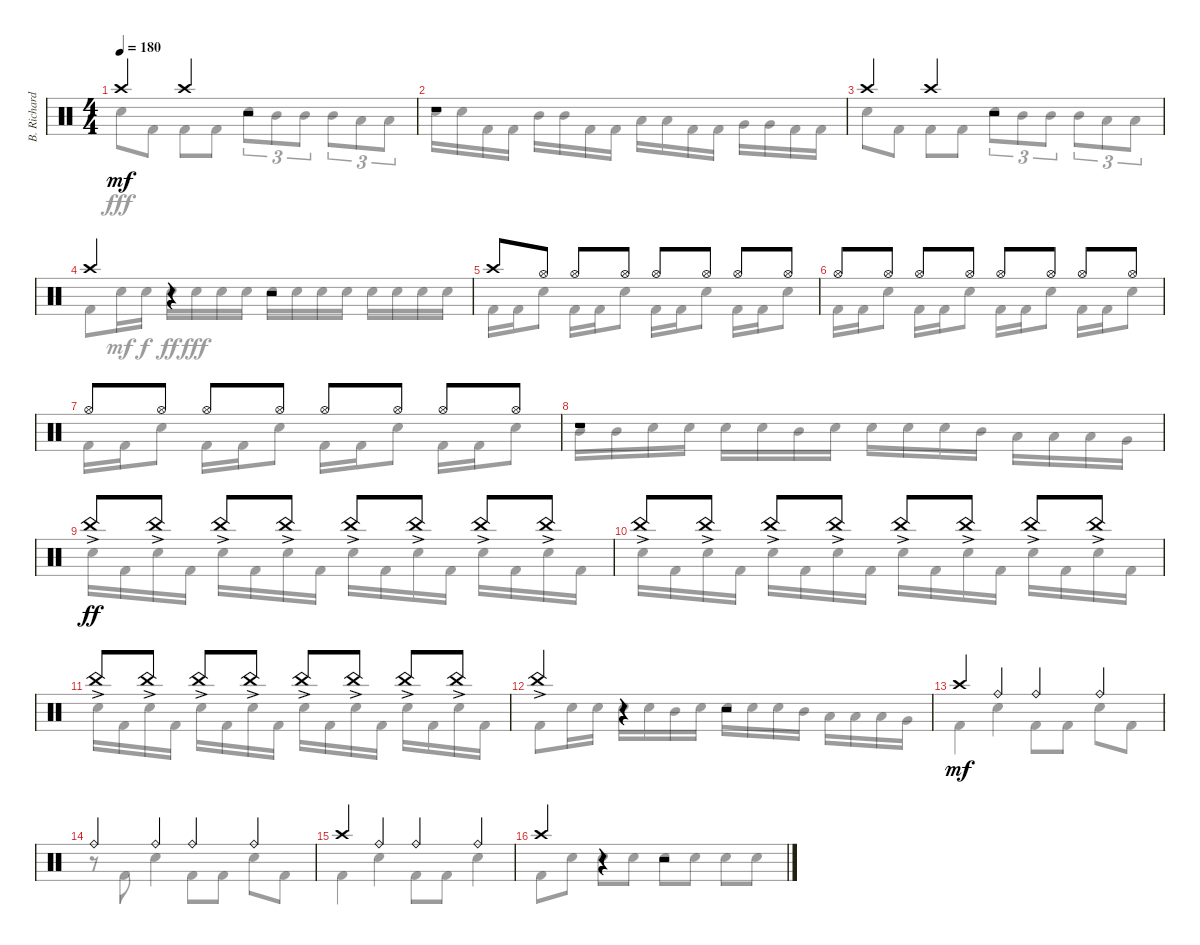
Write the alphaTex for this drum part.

\track ("B. Richardson Drums" "B. Richard") {instrument percussion}
\staff {score}
\articulation defaults
\voice
\ts (4 4)
\tempo 180
\clef neutral
\ks c "Crash high (hit)".4{dy mf} "Crash high (hit)".4
r.2 |
r.1 |
"Crash high (hit)".4 "Crash high (hit)".4 r.2 |
"Crash high (hit)".4 r.4 r.2 |
"Crash high (hit)".8 "Hi-Hat (open)".8 "Hi-Hat (open)".8 "Hi-Hat (open)".8 "Hi-Hat (open)".8 "Hi-Hat (open)".8 "Hi-Hat (open)".8 "Hi-Hat (open)".8 |
"Hi-Hat (open)".8 "Hi-Hat (open)".8 "Hi-Hat (open)".8 "Hi-Hat (open)".8 "Hi-Hat (open)".8 "Hi-Hat (open)".8 "Hi-Hat (open)".8 "Hi-Hat (open)".8 |
"Hi-Hat (open)".8 "Hi-Hat (open)".8 "Hi-Hat (open)".8 "Hi-Hat (open)".8 "Hi-Hat (open)".8 "Hi-Hat (open)".8 "Hi-Hat (open)".8 "Hi-Hat (open)".8 |
r.1 |
"China (hit)"{ac}.8{dy ff} "China (hit)"{ac}.8 "China (hit)"{ac}.8 "China (hit)"{ac}.8 "China (hit)"{ac}.8 "China (hit)"{ac}.8 "China (hit)"{ac}.8 "China (hit)"{ac}.8 |
"China (hit)"{ac}.8 "China (hit)"{ac}.8 "China (hit)"{ac}.8 "China (hit)"{ac}.8 "China (hit)"{ac}.8 "China (hit)"{ac}.8 "China (hit)"{ac}.8 "China (hit)"{ac}.8 |
"China (hit)"{ac}.8 "China (hit)"{ac}.8 "China (hit)"{ac}.8 "China (hit)"{ac}.8 "China (hit)"{ac}.8 "China (hit)"{ac}.8 "China (hit)"{ac}.8 "China (hit)"{ac}.8 |
"China (hit)"{ac}.4 r.4 r.2 |
"Crash high (hit)".4{dy mf} "Ride (bell)".4 "Ride (bell)".4 "Ride (bell)".4 |
"Ride (bell)".4 "Ride (bell)".4 "Ride (bell)".4 "Ride (bell)".4 |
"Crash high (hit)".4 "Ride (bell)".4 "Ride (bell)".4 "Ride (bell)".4 |
"Crash high (hit)".4 r.4 r.2
\voice
\clef neutral
\ottava regular
\simile none
\ks c "Electric Snare (hit)".8{dy fff} "Kick (hit) 2".8 "Kick (hit) 2".8 "Kick (hit) 2".8 "Electric Snare (hit)".8{tu (3 2)} "Mid Tom (hit)".8{tu (3 2)} "Mid Tom (hit)".8{tu (3 2)} "Mid Tom (hit)".8{tu (3 2)} "Low Tom (hit)".8{tu (3 2)} "Low Tom (hit)".8{tu (3 2)}
|
"Electric Snare (hit)".16 "Electric Snare (hit)".16 "Kick (hit) 2".16 "Kick (hit) 2".16 "Mid Tom (hit)".16 "Mid Tom (hit)".16 "Kick (hit) 2".16 "Kick (hit) 2".16 "Low Tom (hit)".16 "Low Tom (hit)".16 "Kick (hit) 2".16 "Kick (hit) 2".16 "Very Low Tom (hit)".16 "Very Low Tom (hit)".16 "Kick (hit) 2".16 "Kick (hit) 2".16 |
"Electric Snare (hit)".8 "Kick (hit) 2".8 "Kick (hit) 2".8 "Kick (hit) 2".8 "Electric Snare (hit)".8{tu (3 2)} "Mid Tom (hit)".8{tu (3 2)} "Mid Tom (hit)".8{tu (3 2)} "Mid Tom (hit)".8{tu (3 2)} "Low Tom (hit)".8{tu (3 2)} "Low Tom (hit)".8{tu (3 2)} |
"Kick (hit) 2".8 "Electric Snare (hit)".16{dy mf} "Electric Snare (hit)".16{dy f} "Electric Snare (hit)".16{dy ff} "Electric Snare (hit)".16{dy fff} "Electric Snare (hit)".16 "Electric Snare (hit)".16 "Electric Snare (hit)".16 "Electric Snare (hit)".16 "Electric Snare (hit)".16 "Electric Snare (hit)".16 "Electric Snare (hit)".16 "Electric Snare (hit)".16 "Electric Snare (hit)".16 "Electric Snare (hit)".16 |
"Kick (hit) 2".16 "Kick (hit) 2".16 "Electric Snare (hit)".8 "Kick (hit) 2".16 "Kick (hit) 2".16 "Electric Snare (hit)".8 "Kick (hit) 2".16 "Kick (hit) 2".16 "Electric Snare (hit)".8 "Kick (hit) 2".16 "Kick (hit) 2".16 "Electric Snare (hit)".8 |
"Kick (hit) 2".16 "Kick (hit) 2".16 "Electric Snare (hit)".8 "Kick (hit) 2".16 "Kick (hit) 2".16 "Electric Snare (hit)".8 "Kick (hit) 2".16 "Kick (hit) 2".16 "Electric Snare (hit)".8 "Kick (hit) 2".16 "Kick (hit) 2".16 "Electric Snare (hit)".8 |
"Kick (hit) 2".16 "Kick (hit) 2".16 "Electric Snare (hit)".8 "Kick (hit) 2".16 "Kick (hit) 2".16 "Electric Snare (hit)".8 "Kick (hit) 2".16 "Kick (hit) 2".16 "Electric Snare (hit)".8 "Kick (hit) 2".16 "Kick (hit) 2".16 "Electric Snare (hit)".8 |
"Mid Tom (hit)".16 "Mid Tom (hit)".16 "Electric Snare (hit)".16 "Electric Snare (hit)".16 "Electric Snare (hit)".16 "Electric Snare (hit)".16 "Mid Tom (hit)".16 "Electric Snare (hit)".16 "Electric Snare (hit)".16 "Electric Snare (hit)".16 "Electric Snare (hit)".16 "Mid Tom (hit)".16 "Low Tom (hit)".16 "Low Tom (hit)".16 "Low Tom (hit)".16 "Very Low Tom (hit)".16 |
"Electric Snare (hit)".16 "Kick (hit) 2".16 "Electric Snare (hit)".16 "Kick (hit) 2".16 "Electric Snare (hit)".16 "Kick (hit) 2".16 "Electric Snare (hit)".16 "Kick (hit) 2".16 "Electric Snare (hit)".16 "Kick (hit) 2".16 "Electric Snare (hit)".16 "Kick (hit) 2".16 "Electric Snare (hit)".16 "Kick (hit) 2".16 "Electric Snare (hit)".16 "Kick (hit) 2".16 |
"Electric Snare (hit)".16 "Kick (hit) 2".16 "Electric Snare (hit)".16 "Kick (hit) 2".16 "Electric Snare (hit)".16 "Kick (hit) 2".16 "Electric Snare (hit)".16 "Kick (hit) 2".16 "Electric Snare (hit)".16 "Kick (hit) 2".16 "Electric Snare (hit)".16 "Kick (hit) 2".16 "Electric Snare (hit)".16 "Kick (hit) 2".16 "Electric Snare (hit)".16 "Kick (hit) 2".16 |
"Electric Snare (hit)".16 "Kick (hit) 2".16 "Electric Snare (hit)".16 "Kick (hit) 2".16 "Electric Snare (hit)".16 "Kick (hit) 2".16 "Electric Snare (hit)".16 "Kick (hit) 2".16 "Electric Snare (hit)".16 "Kick (hit) 2".16 "Electric Snare (hit)".16 "Kick (hit) 2".16 "Electric Snare (hit)".16 "Kick (hit) 2".16 "Electric Snare (hit)".16 "Kick (hit) 2".16 |
"Kick (hit) 2".8 "Electric Snare (hit)".16 "Electric Snare (hit)".16 "Electric Snare (hit)".16 "Electric Snare (hit)".16 "Mid Tom (hit)".16 "Electric Snare (hit)".16 "Electric Snare (hit)".16 "Electric Snare (hit)".16 "Electric Snare (hit)".16 "Mid Tom (hit)".16 "Low Tom (hit)".16 "Low Tom (hit)".16 "Low Tom (hit)".16 "Very Low Tom (hit)".16 |
"Kick (hit) 2".4 "Electric Snare (hit)".4 "Kick (hit) 2".8 "Kick (hit) 2".8 "Electric Snare (hit)".8 "Kick (hit) 2".8 |
r.8 "Kick (hit) 2".8 "Electric Snare (hit)".4 "Kick (hit) 2".8 "Kick (hit) 2".8 "Electric Snare (hit)".8 "Kick (hit) 2".8 |
"Kick (hit) 2".4 "Electric Snare (hit)".4 "Kick (hit) 2".8 "Kick (hit) 2".8 "Electric Snare (hit)".4 |
"Kick (hit) 2".8 "Electric Snare (hit)".8 "Electric Snare (hit)".8 "Electric Snare (hit)".8 "Electric Snare (hit)".8 "Electric Snare (hit)".8 "Electric Snare (hit)".8 "Electric Snare (hit)".8
